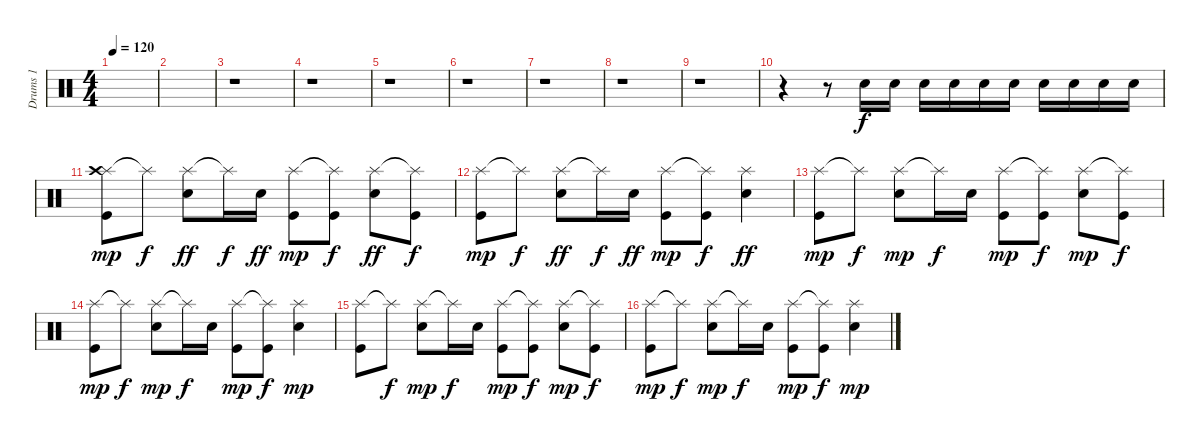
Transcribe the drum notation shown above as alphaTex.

\track ("Drums 1" "Drums 1") {instrument percussion}
\staff {score}
\articulation defaults
\ts (4 4)
\tempo 120
\clef neutral
\ks c
|
|
r.1 |
r.1 |
r.1 |
r.1 |
r.1 |
r.1 |
r.1 |
r.4 r.8 "Electric Snare (hit)".16 "Electric Snare (hit)".16 "Electric Snare (hit)".16 "Electric Snare (hit)".16 "Electric Snare (hit)".16 "Electric Snare (hit)".16 "Electric Snare (hit)".16 "Electric Snare (hit)".16 "Electric Snare (hit)".16 "Electric Snare (hit)".16 |
("Splash (hit)" "Kick (hit)" "Crash high (hit)").8{dy mp} "Splash (hit)"{t}.8{dy f} ("Splash (hit)" "Electric Snare (hit)").8{dy ff} "Splash (hit)"{t}.16{dy f} "Electric Snare (hit)".16{dy ff} ("Splash (hit)" "Kick (hit)").8{dy mp} ("Splash (hit)"{t} "Kick (hit)").8{dy f} ("Splash (hit)" "Electric Snare (hit)").8{dy ff} ("Splash (hit)"{t} "Kick (hit)").8{dy f} |
("Splash (hit)" "Kick (hit)").8{dy mp} "Splash (hit)"{t}.8{dy f} ("Splash (hit)" "Electric Snare (hit)").8{dy ff} "Splash (hit)"{t}.16{dy f} "Electric Snare (hit)".16{dy ff} ("Splash (hit)" "Kick (hit)").8{dy mp} ("Splash (hit)"{t} "Kick (hit)").8{dy f} ("Splash (hit)" "Electric Snare (hit)").4{dy ff} |
("Splash (hit)" "Kick (hit)").8{dy mp} "Splash (hit)"{t}.8{dy f} ("Splash (hit)" "Electric Snare (hit)").8{dy mp} "Splash (hit)"{t}.16{dy f} "Electric Snare (hit)".16 ("Splash (hit)" "Kick (hit)").8{dy mp} ("Splash (hit)"{t} "Kick (hit)").8{dy f} ("Splash (hit)" "Electric Snare (hit)").8{dy mp} ("Splash (hit)"{t} "Kick (hit)").8{dy f} |
("Splash (hit)" "Kick (hit)").8{dy mp} "Splash (hit)"{t}.8{dy f} ("Splash (hit)" "Electric Snare (hit)").8{dy mp} "Splash (hit)"{t}.16{dy f} "Electric Snare (hit)".16 ("Splash (hit)" "Kick (hit)").8{dy mp} ("Splash (hit)"{t} "Kick (hit)").8{dy f} ("Splash (hit)" "Electric Snare (hit)").4{dy mp} |
("Splash (hit)" "Kick (hit)").8 "Splash (hit)"{t}.8{dy f} ("Splash (hit)" "Electric Snare (hit)").8{dy mp} "Splash (hit)"{t}.16{dy f} "Electric Snare (hit)".16 ("Splash (hit)" "Kick (hit)").8{dy mp} ("Splash (hit)"{t} "Kick (hit)").8{dy f} ("Splash (hit)" "Electric Snare (hit)").8{dy mp} ("Splash (hit)"{t} "Kick (hit)").8{dy f} |
("Splash (hit)" "Kick (hit)").8{dy mp} "Splash (hit)"{t}.8{dy f} ("Splash (hit)" "Electric Snare (hit)").8{dy mp} "Splash (hit)"{t}.16{dy f} "Electric Snare (hit)".16 ("Splash (hit)" "Kick (hit)").8{dy mp} ("Splash (hit)"{t} "Kick (hit)").8{dy f} ("Splash (hit)" "Electric Snare (hit)").4{dy mp}
